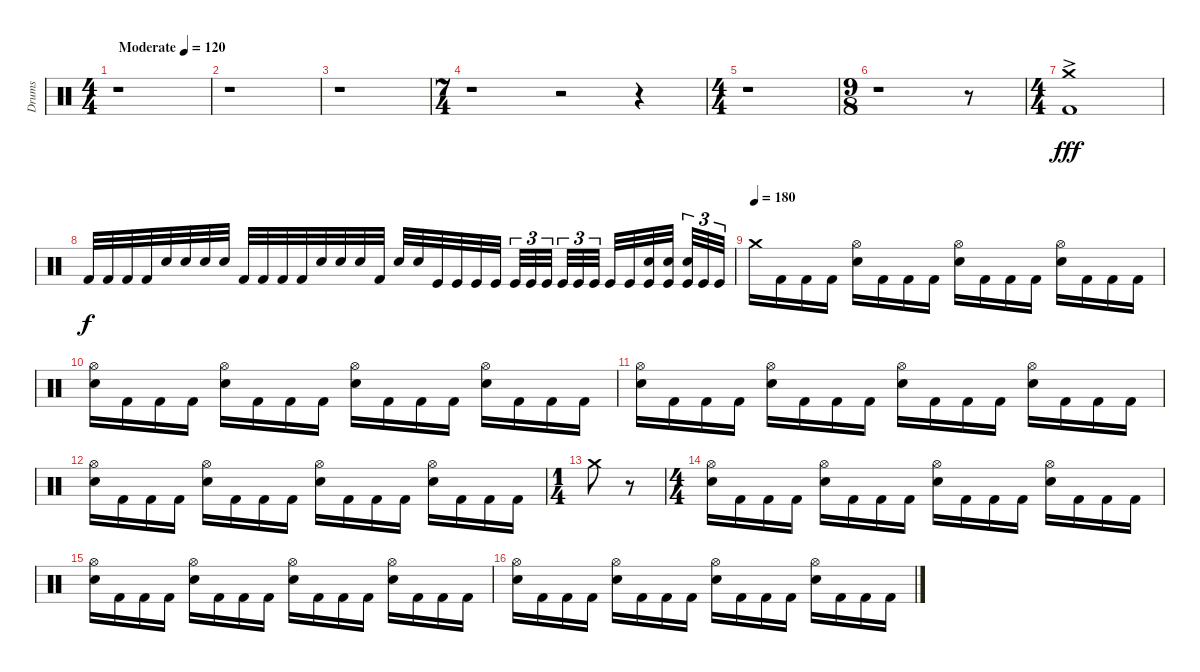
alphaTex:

\track ("Drums" "Drums") {instrument percussion}
\staff {score}
\articulation defaults
\ts (4 4)
\tempo (120 "Moderate")
\tempo 90
\tempo (120 "Moderate")
\clef neutral
\ks c
r.1{dy fff} |
r.1 |
r.1 |
\ts (7 4)
r.1 r.2 r.4 |
\ts (4 4)
r.1 |
\ts (9 8)
r.1 r.8 |
\ts (4 4)
("Crash medium (hit)"{ac} "Kick (hit) 2").1 |
"Kick (hit) 2".32{dy f} "Kick (hit) 2".32 "Kick (hit) 2".32 "Kick (hit) 2".32 "Electric Snare (hit)".32 "Electric Snare (hit)".32 "Electric Snare (hit)".32 "Electric Snare (hit)".32 "Kick (hit) 2".32 "Kick (hit) 2".32 "Kick (hit) 2".32 "Kick (hit) 2".32 "Electric Snare (hit)".32 "Electric Snare (hit)".32 "Electric Snare (hit)".32 "Kick (hit) 2".32 "Electric Snare (hit)".32 "Electric Snare (hit)".32 "Kick (hit)".32 "Kick (hit)".32 "Kick (hit)".32 "Kick (hit)".32{beam splitsecondary} "Kick (hit)".32{tu (3 2)} "Kick (hit)".32{tu (3 2)} "Kick (hit)".32{tu (3 2)} "Kick (hit)".32{tu (3 2)} "Kick (hit)".32{tu (3 2)} "Kick (hit)".32{tu (3 2) beam splitsecondary} "Kick (hit)".32 "Kick (hit)".32 ("Electric Snare (hit)" "Kick (hit)").32 ("Electric Snare (hit)" "Kick (hit)").32{beam splitsecondary} ("Electric Snare (hit)" "Kick (hit)").32{tu (3 2)} "Kick (hit)".32{tu (3 2)} "Kick (hit)".32{tu (3 2)} |
\tempo (180)
"Crash medium (hit)".16 "Kick (hit) 2".16 "Kick (hit) 2".16 "Kick (hit) 2".16 ("Hi-Hat (open)" "Electric Snare (hit)").16 "Kick (hit) 2".16 "Kick (hit) 2".16 "Kick (hit) 2".16 ("Hi-Hat (open)" "Electric Snare (hit)").16 "Kick (hit) 2".16 "Kick (hit) 2".16 "Kick (hit) 2".16 ("Hi-Hat (open)" "Electric Snare (hit)").16 "Kick (hit) 2".16 "Kick (hit) 2".16 "Kick (hit) 2".16 |
("Hi-Hat (open)" "Electric Snare (hit)").16 "Kick (hit) 2".16 "Kick (hit) 2".16 "Kick (hit) 2".16 ("Hi-Hat (open)" "Electric Snare (hit)").16 "Kick (hit) 2".16 "Kick (hit) 2".16 "Kick (hit) 2".16 ("Hi-Hat (open)" "Electric Snare (hit)").16 "Kick (hit) 2".16 "Kick (hit) 2".16 "Kick (hit) 2".16 ("Hi-Hat (open)" "Electric Snare (hit)").16 "Kick (hit) 2".16 "Kick (hit) 2".16 "Kick (hit) 2".16 |
("Hi-Hat (open)" "Electric Snare (hit)").16 "Kick (hit) 2".16 "Kick (hit) 2".16 "Kick (hit) 2".16 ("Hi-Hat (open)" "Electric Snare (hit)").16 "Kick (hit) 2".16 "Kick (hit) 2".16 "Kick (hit) 2".16 ("Hi-Hat (open)" "Electric Snare (hit)").16 "Kick (hit) 2".16 "Kick (hit) 2".16 "Kick (hit) 2".16 ("Hi-Hat (open)" "Electric Snare (hit)").16 "Kick (hit) 2".16 "Kick (hit) 2".16 "Kick (hit) 2".16 |
("Hi-Hat (open)" "Electric Snare (hit)").16 "Kick (hit) 2".16 "Kick (hit) 2".16 "Kick (hit) 2".16 ("Hi-Hat (open)" "Electric Snare (hit)").16 "Kick (hit) 2".16 "Kick (hit) 2".16 "Kick (hit) 2".16 ("Hi-Hat (open)" "Electric Snare (hit)").16 "Kick (hit) 2".16 "Kick (hit) 2".16 "Kick (hit) 2".16 ("Hi-Hat (open)" "Electric Snare (hit)").16 "Kick (hit) 2".16 "Kick (hit) 2".16 "Kick (hit) 2".16 |
\ts (1 4)
"Crash medium (hit)".8 r.8 |
\ts (4 4)
("Hi-Hat (open)" "Electric Snare (hit)").16 "Kick (hit) 2".16 "Kick (hit) 2".16 "Kick (hit) 2".16 ("Hi-Hat (open)" "Electric Snare (hit)").16 "Kick (hit) 2".16 "Kick (hit) 2".16 "Kick (hit) 2".16 ("Hi-Hat (open)" "Electric Snare (hit)").16 "Kick (hit) 2".16 "Kick (hit) 2".16 "Kick (hit) 2".16 ("Hi-Hat (open)" "Electric Snare (hit)").16 "Kick (hit) 2".16 "Kick (hit) 2".16 "Kick (hit) 2".16 |
("Hi-Hat (open)" "Electric Snare (hit)").16 "Kick (hit) 2".16 "Kick (hit) 2".16 "Kick (hit) 2".16 ("Hi-Hat (open)" "Electric Snare (hit)").16 "Kick (hit) 2".16 "Kick (hit) 2".16 "Kick (hit) 2".16 ("Hi-Hat (open)" "Electric Snare (hit)").16 "Kick (hit) 2".16 "Kick (hit) 2".16 "Kick (hit) 2".16 ("Hi-Hat (open)" "Electric Snare (hit)").16 "Kick (hit) 2".16 "Kick (hit) 2".16 "Kick (hit) 2".16 |
("Hi-Hat (open)" "Electric Snare (hit)").16 "Kick (hit) 2".16 "Kick (hit) 2".16 "Kick (hit) 2".16 ("Hi-Hat (open)" "Electric Snare (hit)").16 "Kick (hit) 2".16 "Kick (hit) 2".16 "Kick (hit) 2".16 ("Hi-Hat (open)" "Electric Snare (hit)").16 "Kick (hit) 2".16 "Kick (hit) 2".16 "Kick (hit) 2".16 ("Hi-Hat (open)" "Electric Snare (hit)").16 "Kick (hit) 2".16 "Kick (hit) 2".16 "Kick (hit) 2".16
